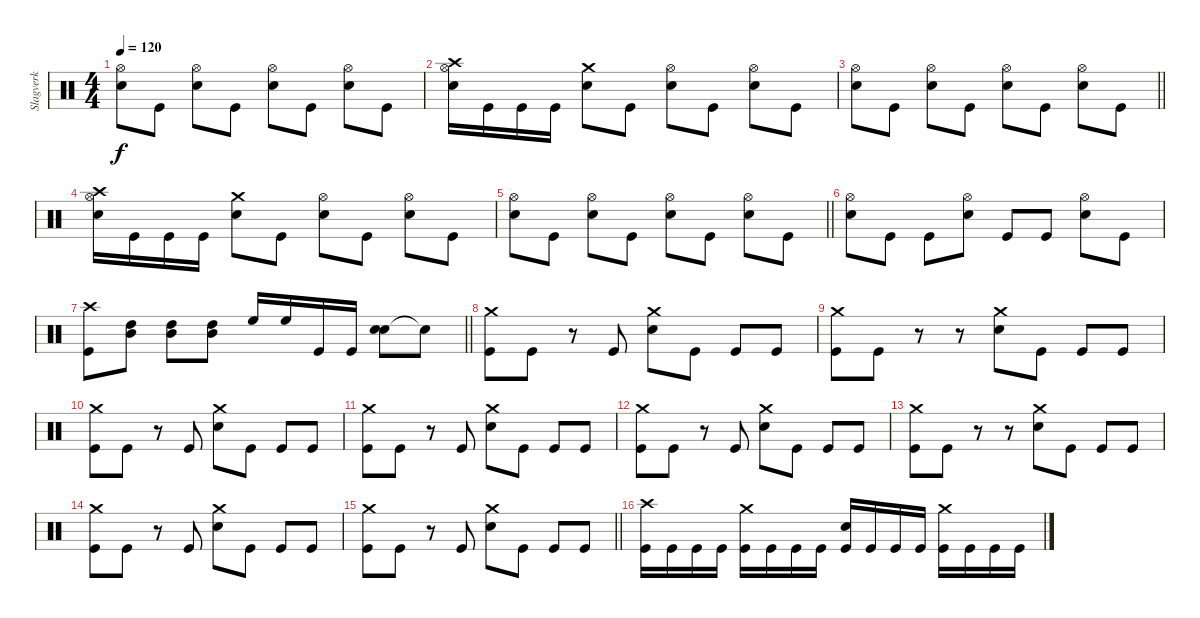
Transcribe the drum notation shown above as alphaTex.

\track ("Slagverk" "Slagverk") {instrument percussion}
\staff {score}
\articulation defaults
\ts (4 4)
\tempo 120
\clef neutral
\ks c
("Hi-Hat (open)" "Electric Snare (hit)").8{dy f} "Kick (hit)".8 ("Hi-Hat (open)" "Electric Snare (hit)").8 "Kick (hit)".8 ("Hi-Hat (open)" "Electric Snare (hit)").8 "Kick (hit)".8 ("Hi-Hat (open)" "Electric Snare (hit)").8 "Kick (hit)".8 |
("Crash high (hit)" "Hi-Hat (open)" "Electric Snare (hit)").16 "Kick (hit)".16 "Kick (hit)".16 "Kick (hit)".16 ("Crash medium (hit)" "Electric Snare (hit)").8 "Kick (hit)".8 ("Hi-Hat (open)" "Electric Snare (hit)").8 "Kick (hit)".8 ("Hi-Hat (open)" "Electric Snare (hit)").8 "Kick (hit)".8 |
\barLineRight lightlight
("Hi-Hat (open)" "Electric Snare (hit)").8 "Kick (hit)".8 ("Hi-Hat (open)" "Electric Snare (hit)").8 "Kick (hit)".8 ("Hi-Hat (open)" "Electric Snare (hit)").8 "Kick (hit)".8 ("Hi-Hat (open)" "Electric Snare (hit)").8 "Kick (hit)".8 |
("Crash high (hit)" "Hi-Hat (open)" "Electric Snare (hit)").16 "Kick (hit)".16 "Kick (hit)".16 "Kick (hit)".16 ("Crash medium (hit)" "Electric Snare (hit)").8 "Kick (hit)".8 ("Hi-Hat (open)" "Electric Snare (hit)").8 "Kick (hit)".8 ("Hi-Hat (open)" "Electric Snare (hit)").8 "Kick (hit)".8 |
\barLineRight lightlight
("Hi-Hat (open)" "Electric Snare (hit)").8 "Kick (hit)".8 ("Hi-Hat (open)" "Electric Snare (hit)").8 "Kick (hit)".8 ("Hi-Hat (open)" "Electric Snare (hit)").8 "Kick (hit)".8 ("Hi-Hat (open)" "Electric Snare (hit)").8 "Kick (hit)".8 |
("Hi-Hat (open)" "Electric Snare (hit)").8 "Kick (hit)".8 "Kick (hit)".8 ("Hi-Hat (open)" "Electric Snare (hit)").8 "Kick (hit)".8 "Kick (hit)".8 ("Hi-Hat (open)" "Electric Snare (hit)").8 "Kick (hit)".8 |
\barLineRight lightlight
("Crash high (hit)" "Kick (hit)").8 ("High Tom (hit)" "Mid Tom (hit)").8 ("High Tom (hit)" "Mid Tom (hit)").8 ("High Tom (hit)" "Mid Tom (hit)").8 "High Floor Tom (hit)".16 "High Floor Tom (hit)".16 "Kick (hit)".16 "Kick (hit)".16 ("Electric Snare (hit)" "Electric Snare (hit)").8 "Snare (hit)"{t}.8 |
("Crash medium (hit)" "Kick (hit)").8 "Kick (hit)".8 r.8 "Kick (hit)".8 ("Crash medium (hit)" "Electric Snare (hit)").8 "Kick (hit)".8 "Kick (hit)".8 "Kick (hit)".8 |
("Crash medium (hit)" "Kick (hit)").8 "Kick (hit)".8 r.8 r.8 ("Crash medium (hit)" "Electric Snare (hit)").8 "Kick (hit)".8 "Kick (hit)".8 "Kick (hit)".8 |
("Crash medium (hit)" "Kick (hit)").8 "Kick (hit)".8 r.8 "Kick (hit)".8 ("Crash medium (hit)" "Electric Snare (hit)").8 "Kick (hit)".8 "Kick (hit)".8 "Kick (hit)".8 |
("Crash medium (hit)" "Kick (hit)").8 "Kick (hit)".8 r.8 "Kick (hit)".8 ("Crash medium (hit)" "Electric Snare (hit)").8 "Kick (hit)".8 "Kick (hit)".8 "Kick (hit)".8 |
("Crash medium (hit)" "Kick (hit)").8 "Kick (hit)".8 r.8 "Kick (hit)".8 ("Crash medium (hit)" "Electric Snare (hit)").8 "Kick (hit)".8 "Kick (hit)".8 "Kick (hit)".8 |
("Crash medium (hit)" "Kick (hit)").8 "Kick (hit)".8 r.8 r.8 ("Crash medium (hit)" "Electric Snare (hit)").8 "Kick (hit)".8 "Kick (hit)".8 "Kick (hit)".8 |
("Crash medium (hit)" "Kick (hit)").8 "Kick (hit)".8 r.8 "Kick (hit)".8 ("Crash medium (hit)" "Electric Snare (hit)").8 "Kick (hit)".8 "Kick (hit)".8 "Kick (hit)".8 |
\barLineRight lightlight
("Crash medium (hit)" "Kick (hit)").8 "Kick (hit)".8 r.8 "Kick (hit)".8 ("Crash medium (hit)" "Electric Snare (hit)").8 "Kick (hit)".8 "Kick (hit)".8 "Kick (hit)".8 |
("Crash high (hit)" "Kick (hit)").16 "Kick (hit)".16 "Kick (hit)".16 "Kick (hit)".16 ("Crash medium (hit)" "Kick (hit)").16 "Kick (hit)".16 "Kick (hit)".16 "Kick (hit)".16 ("Electric Snare (hit)" "Kick (hit)").16 "Kick (hit)".16 "Kick (hit)".16 "Kick (hit)".16 ("Crash medium (hit)" "Kick (hit)").16 "Kick (hit)".16 "Kick (hit)".16 "Kick (hit)".16
